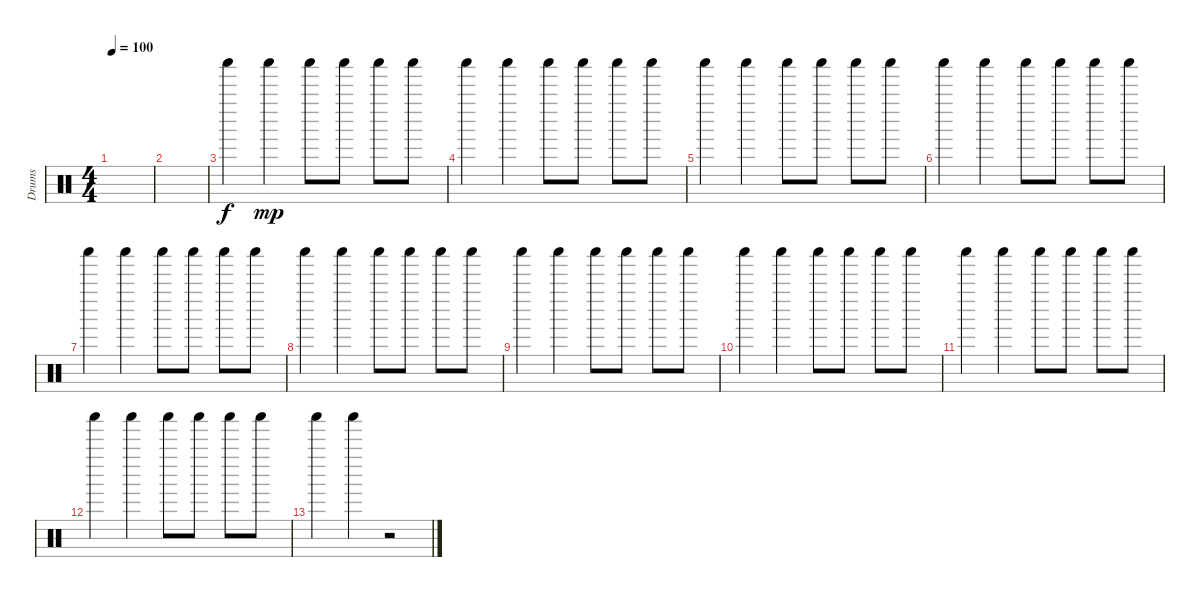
\track ("Drums" "Drums") {instrument percussion}
\staff {score}
\articulation defaults
\ts (4 4)
\tempo 100
\clef neutral
\ks c
|
|
"Shaker (hit)".4 "Shaker (hit)".4{dy mp} "Shaker (hit)".8 "Shaker (hit)".8 "Shaker (hit)".8 "Shaker (hit)".8 |
"Shaker (hit)".4 "Shaker (hit)".4 "Shaker (hit)".8 "Shaker (hit)".8 "Shaker (hit)".8 "Shaker (hit)".8 |
"Shaker (hit)".4 "Shaker (hit)".4 "Shaker (hit)".8 "Shaker (hit)".8 "Shaker (hit)".8 "Shaker (hit)".8 |
"Shaker (hit)".4 "Shaker (hit)".4 "Shaker (hit)".8 "Shaker (hit)".8 "Shaker (hit)".8 "Shaker (hit)".8 |
"Shaker (hit)".4 "Shaker (hit)".4 "Shaker (hit)".8 "Shaker (hit)".8 "Shaker (hit)".8 "Shaker (hit)".8 |
"Shaker (hit)".4 "Shaker (hit)".4 "Shaker (hit)".8 "Shaker (hit)".8 "Shaker (hit)".8 "Shaker (hit)".8 |
"Shaker (hit)".4 "Shaker (hit)".4 "Shaker (hit)".8 "Shaker (hit)".8 "Shaker (hit)".8 "Shaker (hit)".8 |
"Shaker (hit)".4 "Shaker (hit)".4 "Shaker (hit)".8 "Shaker (hit)".8 "Shaker (hit)".8 "Shaker (hit)".8 |
"Shaker (hit)".4 "Shaker (hit)".4 "Shaker (hit)".8 "Shaker (hit)".8 "Shaker (hit)".8 "Shaker (hit)".8 |
"Shaker (hit)".4 "Shaker (hit)".4 "Shaker (hit)".8 "Shaker (hit)".8 "Shaker (hit)".8 "Shaker (hit)".8 |
"Shaker (hit)".4 "Shaker (hit)".4 r.2
